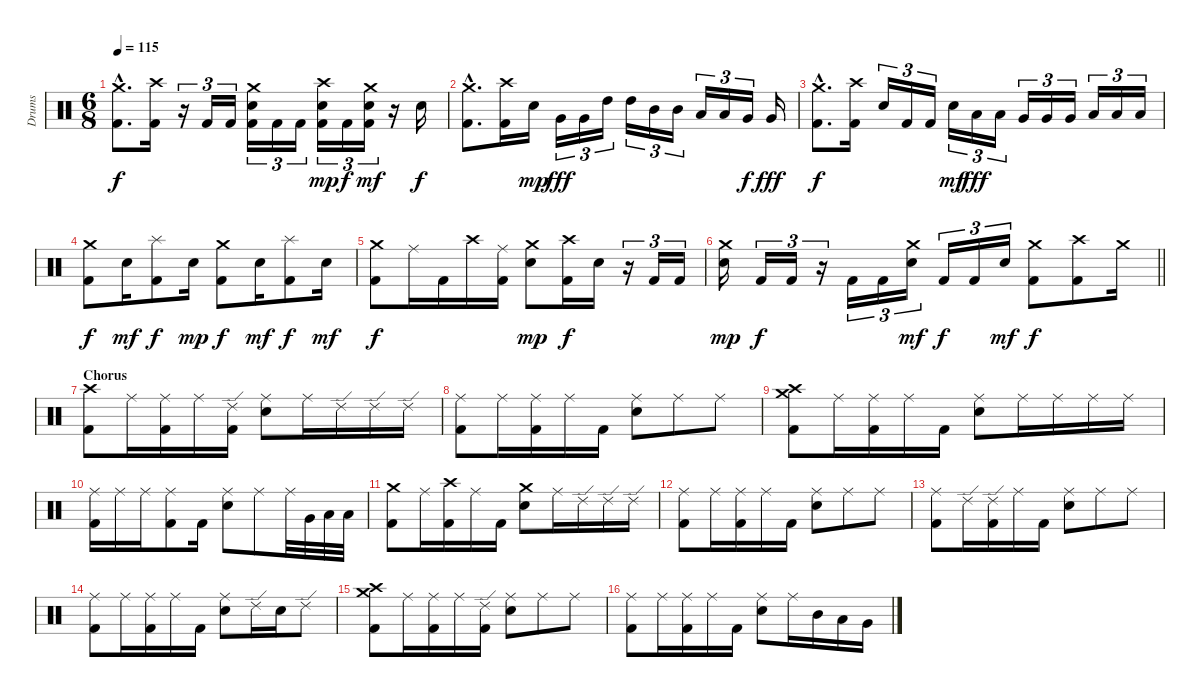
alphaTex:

\track ("Drums" "Drums") {instrument percussion}
\staff {score}
\articulation defaults
\ts (6 8)
\tempo 115
\clef neutral
\ks c
("Crash medium (hit)"{hac} "Kick (hit) 2"{hac}).8{d dy f} ("Crash high (hit)" "Kick (hit) 2").16 r.16{tu (3 2)} "Kick (hit) 2".16{tu (3 2)} "Kick (hit) 2".16{tu (3 2)} ("Crash medium (hit)" "Electric Snare (hit)" "Kick (hit) 2").16{tu (3 2)} "Kick (hit) 2".16{tu (3 2)} "Kick (hit) 2".16{tu (3 2)} ("Crash high (hit)" "Electric Snare (hit)" "Kick (hit) 2").16{tu (3 2) dy mp} "Kick (hit) 2".16{tu (3 2) dy f} ("Crash medium (hit)" "Electric Snare (hit)" "Kick (hit) 2").16{tu (3 2) dy mf} r.16 "Electric Snare (hit)".16{dy f} |
("Crash medium (hit)"{hac} "Kick (hit) 2"{hac}).8{d} ("Crash high (hit)" "Kick (hit) 2").16 "Electric Snare (hit)".16{dy mp} "Very Low Tom (hit)".16{tu (3 2) dy fff} "Very Low Tom (hit)".16{tu (3 2)} "High Tom (hit)".16{tu (3 2)} "High Tom (hit)".16{tu (3 2)} "Mid Tom (hit)".16{tu (3 2)} "Mid Tom (hit)".16{tu (3 2)} "Low Tom (hit)".16{tu (3 2)} "Low Tom (hit)".16{tu (3 2)} "Very Low Tom (hit)".16{tu (3 2) dy f} "Very Low Tom (hit)".16{dy fff} |
("Crash medium (hit)"{hac} "Kick (hit) 2"{hac}).8{d dy f} ("Crash high (hit)" "Kick (hit) 2").16 "Electric Snare (hit)".16{tu (3 2)} "Kick (hit) 2".16{tu (3 2)} "Kick (hit) 2".16{tu (3 2)} "Electric Snare (hit)".16{tu (3 2) dy mf} "Low Tom (hit)".16{tu (3 2) dy fff} "Low Tom (hit)".16{tu (3 2)} "Very Low Tom (hit)".16{tu (3 2)} "Very Low Tom (hit)".16{tu (3 2)} "Very Low Tom (hit)".16{tu (3 2)} "Low Floor Tom (hit)".16{tu (3 2)} "Low Floor Tom (hit)".16{tu (3 2)} "Low Floor Tom (hit)".16{tu (3 2)} |
("Crash medium (hit)" "Kick (hit) 2").8{dy f} "Electric Snare (hit)".16{dy mf} ("Splash (hit)" "Kick (hit) 2").8{dy f} "Electric Snare (hit)".16{dy mp} ("Crash medium (hit)" "Kick (hit) 2").8{dy f} "Electric Snare (hit)".16{dy mf} ("Splash (hit)" "Kick (hit) 2").8{dy f} "Electric Snare (hit)".16{dy mf} |
("Crash medium (hit)" "Kick (hit) 2").8{dy f} "Ride (middle)".16 "Kick (hit) 2".16 "Crash high (hit)".16 ("Ride (middle)" "Kick (hit) 2").16 ("Crash medium (hit)" "Electric Snare (hit)").8{dy mp} ("Crash high (hit)" "Kick (hit) 2").16{dy f} "Electric Snare (hit)".16 r.16{tu (3 2)} "Kick (hit) 2".16{tu (3 2)} "Kick (hit) 2".16{tu (3 2)} |
\barLineRight lightlight
("Crash medium (hit)" "Electric Snare (hit)").16{dy mp} "Kick (hit) 2".16{tu (3 2) dy f} "Kick (hit) 2".16{tu (3 2)} r.16{tu (3 2)} "Kick (hit) 2".16{tu (3 2)} "Kick (hit) 2".16{tu (3 2)} ("Crash medium (hit)" "Electric Snare (hit)").16{tu (3 2) dy mf} "Kick (hit) 2".16{tu (3 2) dy f} "Kick (hit) 2".16{tu (3 2)} "Electric Snare (hit)".16{tu (3 2) dy mf} ("Crash medium (hit)" "Kick (hit) 2").8{dy f} ("Crash high (hit)" "Kick (hit) 2").8 "Crash medium (hit)".16 |
\section ("" "Chorus")
("Crash high (hit)" "Kick (hit) 2").8 "Ride (middle)".16 ("Ride (middle)" "Kick (hit) 2").16 "Ride (middle)".16 ("Ride (edge) 2" "Kick (hit) 2").16 ("Ride (middle)" "Electric Snare (hit)").8 "Ride (middle)".16 "Ride (edge) 2".16 "Ride (edge) 2".16 "Ride (edge) 2".16 |
("Ride (middle)" "Kick (hit) 2").8 "Ride (middle)".16 ("Ride (middle)" "Kick (hit) 2").16 "Ride (middle)".16 "Kick (hit) 2".16 ("Ride (middle)" "Electric Snare (hit)").8 "Ride (middle)".8 "Ride (middle)".8 |
("Crash medium (hit)" "Crash high (hit)" "Kick (hit) 2").8 "Ride (middle)".16 ("Ride (middle)" "Kick (hit) 2").16 "Ride (middle)".16 "Kick (hit) 2".16 ("Ride (middle)" "Electric Snare (hit)").8 "Ride (middle)".16 "Ride (middle)".16 "Ride (middle)".16 "Ride (middle)".16 |
("Ride (middle)" "Kick (hit) 2").16 "Ride (middle)".16 "Ride (middle)".16 ("Ride (middle)" "Kick (hit) 2").8 "Kick (hit) 2".16 ("Ride (middle)" "Electric Snare (hit)").8 "Ride (middle)".8 "Ride (middle)".32 "Very Low Tom (hit)".32 "Low Tom (hit)".32 "Low Tom (hit)".32 |
("Crash medium (hit)" "Kick (hit) 2").8 "Ride (middle)".16 ("Crash high (hit)" "Kick (hit) 2").16 "Ride (middle)".16 "Kick (hit) 2".16 ("Crash medium (hit)" "Electric Snare (hit)").8 "Ride (middle)".16 "Ride (edge) 2".16 "Ride (edge) 2".16 "Ride (edge) 2".16 |
("Ride (middle)" "Kick (hit) 2").8 "Ride (middle)".16 ("Ride (middle)" "Kick (hit) 2").16 "Ride (middle)".16 "Kick (hit) 2".16 ("Ride (middle)" "Electric Snare (hit)").8 "Ride (middle)".8 "Ride (middle)".8 |
("Ride (middle)" "Kick (hit) 2").8 "Ride (edge) 2".16 ("Ride (edge) 2" "Kick (hit) 2").16 "Ride (middle)".16 "Kick (hit) 2".16 ("Ride (middle)" "Electric Snare (hit)").8 "Ride (middle)".8 "Ride (middle)".8 |
("Ride (middle)" "Kick (hit) 2").8 "Ride (middle)".16 ("Ride (middle)" "Kick (hit) 2").16 "Ride (middle)".16 "Kick (hit) 2".16 ("Ride (middle)" "Electric Snare (hit)").8 "Ride (edge) 2".16 "Electric Snare (hit)".16 "Ride (edge) 2".8 |
("Crash medium (hit)" "Crash high (hit)" "Kick (hit) 2").8 "Ride (middle)".16 ("Ride (middle)" "Kick (hit) 2").16 "Ride (middle)".16 ("Ride (edge) 2" "Kick (hit) 2").16 ("Ride (middle)" "Electric Snare (hit)").8 "Ride (middle)".8 "Ride (middle)".8 |
("Ride (middle)" "Kick (hit) 2").8 "Ride (middle)".16 ("Ride (middle)" "Kick (hit) 2").16 "Ride (middle)".16 "Kick (hit) 2".16 ("Ride (middle)" "Electric Snare (hit)").8 "Ride (middle)".16 "Mid Tom (hit)".16 "Low Tom (hit)".16 "Very Low Tom (hit)".16
